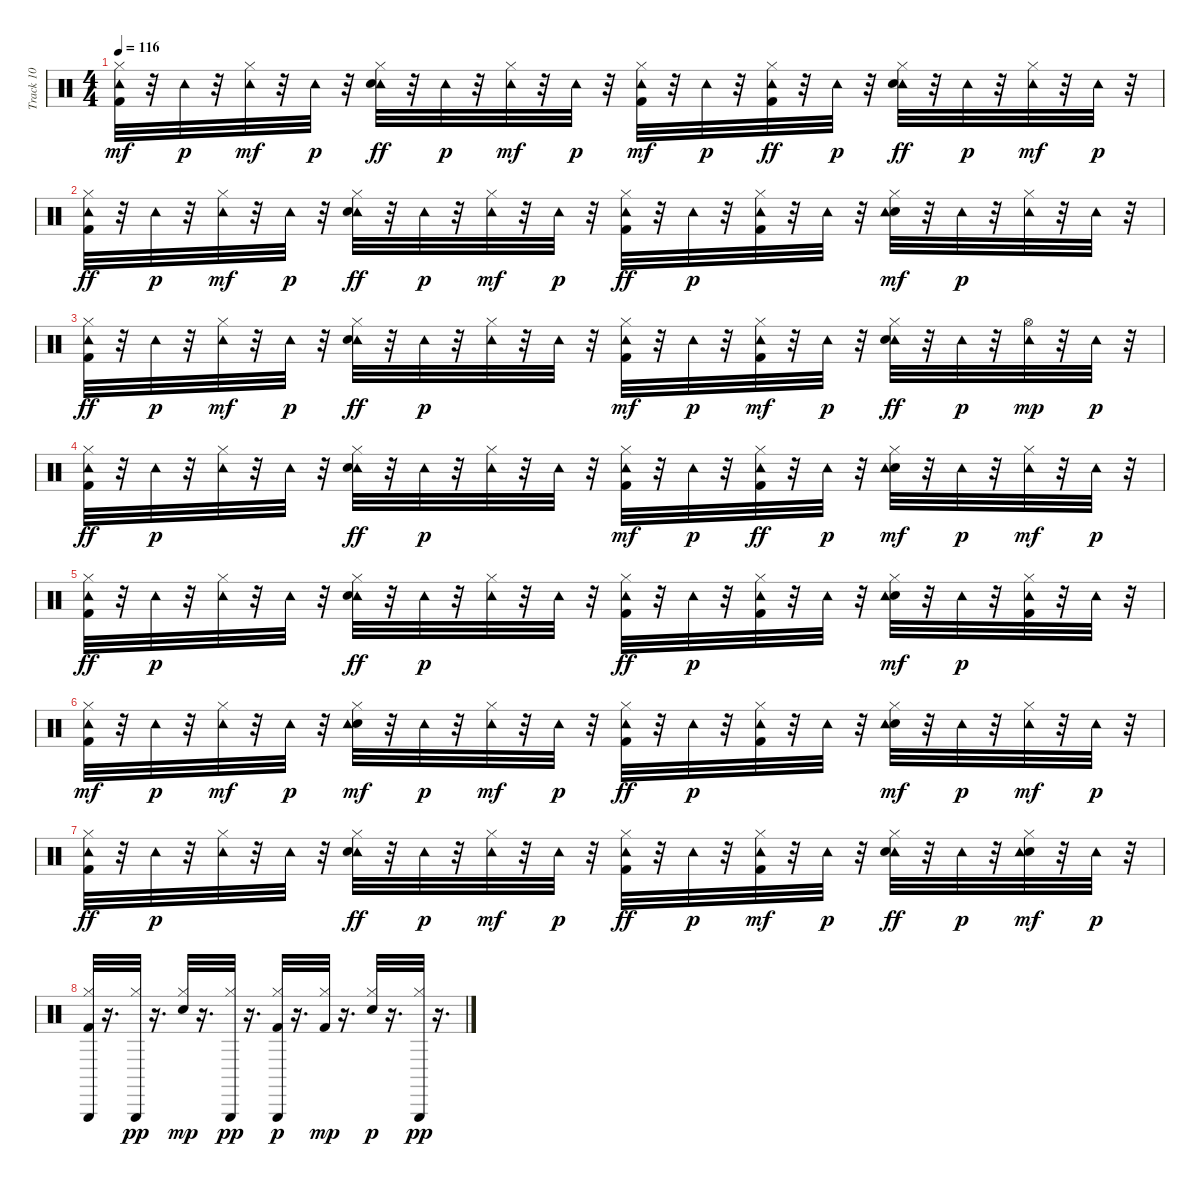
\track ("Track 10" "Track 10") {instrument percussion}
\staff {score}
\articulation defaults
\ts (4 4)
\tempo 116
\clef neutral
\ks c
("Hi-Hat (closed)" "Kick (hit) 2" "Tambourine (hit)").32{dy mf} r.32 "Tambourine (hit)".32{dy p} r.32 ("Hi-Hat (closed)" "Tambourine (hit)").32{dy mf} r.32 "Tambourine (hit)".32{dy p} r.32 ("Hi-Hat (closed)" "Tambourine (hit)" "Snare (hit) 2").32{dy ff} r.32 "Tambourine (hit)".32{dy p} r.32 ("Hi-Hat (closed)" "Tambourine (hit)").32{dy mf} r.32 "Tambourine (hit)".32{dy p} r.32 ("Hi-Hat (closed)" "Kick (hit) 2" "Tambourine (hit)").32{dy mf} r.32 "Tambourine (hit)".32{dy p} r.32 ("Tambourine (hit)" "Hi-Hat (closed)" "Kick (hit) 2").32{dy ff} r.32 "Tambourine (hit)".32{dy p} r.32 ("Tambourine (hit)" "Snare (hit) 2" "Hi-Hat (closed)").32{dy ff} r.32 "Tambourine (hit)".32{dy p} r.32 ("Hi-Hat (closed)" "Tambourine (hit)").32{dy mf} r.32 "Tambourine (hit)".32{dy p} r.32 |
("Tambourine (hit)" "Hi-Hat (closed)" "Kick (hit) 2").32{dy ff} r.32 "Tambourine (hit)".32{dy p} r.32 ("Hi-Hat (closed)" "Tambourine (hit)").32{dy mf} r.32 "Tambourine (hit)".32{dy p} r.32 ("Tambourine (hit)" "Snare (hit) 2" "Hi-Hat (closed)").32{dy ff} r.32 "Tambourine (hit)".32{dy p} r.32 ("Hi-Hat (closed)" "Tambourine (hit)").32{dy mf} r.32 "Tambourine (hit)".32{dy p} r.32 ("Tambourine (hit)" "Kick (hit) 2" "Hi-Hat (closed)").32{dy ff} r.32 "Tambourine (hit)".32{dy p} r.32 ("Tambourine (hit)" "Kick (hit) 2" "Hi-Hat (closed)").32 r.32 "Tambourine (hit)".32 r.32 ("Snare (hit) 2" "Hi-Hat (closed)" "Tambourine (hit)").32{dy mf} r.32 "Tambourine (hit)".32{dy p} r.32 ("Tambourine (hit)" "Hi-Hat (closed)").32 r.32 "Tambourine (hit)".32 r.32 |
("Tambourine (hit)" "Kick (hit) 2" "Hi-Hat (closed)").32{dy ff} r.32 "Tambourine (hit)".32{dy p} r.32 ("Hi-Hat (closed)" "Tambourine (hit)").32{dy mf} r.32 "Tambourine (hit)".32{dy p} r.32 ("Tambourine (hit)" "Snare (hit) 2" "Hi-Hat (closed)").32{dy ff} r.32 "Tambourine (hit)".32{dy p} r.32 ("Tambourine (hit)" "Hi-Hat (closed)").32 r.32 "Tambourine (hit)".32 r.32 ("Hi-Hat (closed)" "Kick (hit) 2" "Tambourine (hit)").32{dy mf} r.32 "Tambourine (hit)".32{dy p} r.32 ("Hi-Hat (closed)" "Kick (hit) 2" "Tambourine (hit)").32{dy mf} r.32 "Tambourine (hit)".32{dy p} r.32 ("Tambourine (hit)" "Snare (hit) 2" "Hi-Hat (closed)").32{dy ff} r.32 "Tambourine (hit)".32{dy p} r.32 ("Tambourine (hit)" "Hi-Hat (open)").32{dy mp} r.32 "Tambourine (hit)".32{dy p} r.32 |
("Tambourine (hit)" "Kick (hit) 2" "Hi-Hat (closed)").32{dy ff} r.32 "Tambourine (hit)".32{dy p} r.32 ("Tambourine (hit)" "Hi-Hat (closed)").32 r.32 "Tambourine (hit)".32 r.32 ("Hi-Hat (closed)" "Tambourine (hit)" "Snare (hit) 2").32{dy ff} r.32 "Tambourine (hit)".32{dy p} r.32 ("Tambourine (hit)" "Hi-Hat (closed)").32 r.32 "Tambourine (hit)".32 r.32 ("Kick (hit) 2" "Hi-Hat (closed)" "Tambourine (hit)").32{dy mf} r.32 "Tambourine (hit)".32{dy p} r.32 ("Hi-Hat (closed)" "Tambourine (hit)" "Kick (hit) 2").32{dy ff} r.32 "Tambourine (hit)".32{dy p} r.32 ("Hi-Hat (closed)" "Snare (hit) 2" "Tambourine (hit)").32{dy mf} r.32 "Tambourine (hit)".32{dy p} r.32 ("Hi-Hat (closed)" "Tambourine (hit)").32{dy mf} r.32 "Tambourine (hit)".32{dy p} r.32 |
("Hi-Hat (closed)" "Tambourine (hit)" "Kick (hit) 2").32{dy ff} r.32 "Tambourine (hit)".32{dy p} r.32 ("Tambourine (hit)" "Hi-Hat (closed)").32 r.32 "Tambourine (hit)".32 r.32 ("Hi-Hat (closed)" "Tambourine (hit)" "Snare (hit) 2").32{dy ff} r.32 "Tambourine (hit)".32{dy p} r.32 ("Tambourine (hit)" "Hi-Hat (closed)").32 r.32 "Tambourine (hit)".32 r.32 ("Tambourine (hit)" "Kick (hit) 2" "Hi-Hat (closed)").32{dy ff} r.32 "Tambourine (hit)".32{dy p} r.32 ("Tambourine (hit)" "Kick (hit) 2" "Hi-Hat (closed)").32 r.32 "Tambourine (hit)".32 r.32 ("Snare (hit) 2" "Tambourine (hit)" "Hi-Hat (closed)").32{dy mf} r.32 "Tambourine (hit)".32{dy p} r.32 ("Tambourine (hit)" "Kick (hit) 2" "Hi-Hat (closed)").32 r.32 "Tambourine (hit)".32 r.32 |
("Hi-Hat (closed)" "Kick (hit) 2" "Tambourine (hit)").32{dy mf} r.32 "Tambourine (hit)".32{dy p} r.32 ("Hi-Hat (closed)" "Tambourine (hit)").32{dy mf} r.32 "Tambourine (hit)".32{dy p} r.32 ("Snare (hit) 2" "Tambourine (hit)" "Hi-Hat (closed)").32{dy mf} r.32 "Tambourine (hit)".32{dy p} r.32 ("Hi-Hat (closed)" "Tambourine (hit)").32{dy mf} r.32 "Tambourine (hit)".32{dy p} r.32 ("Tambourine (hit)" "Hi-Hat (closed)" "Kick (hit) 2").32{dy ff} r.32 "Tambourine (hit)".32{dy p} r.32 ("Kick (hit) 2" "Tambourine (hit)" "Hi-Hat (closed)").32 r.32 "Tambourine (hit)".32 r.32 ("Snare (hit) 2" "Tambourine (hit)" "Hi-Hat (closed)").32{dy mf} r.32 "Tambourine (hit)".32{dy p} r.32 ("Hi-Hat (closed)" "Tambourine (hit)").32{dy mf} r.32 "Tambourine (hit)".32{dy p} r.32 |
("Hi-Hat (closed)" "Tambourine (hit)" "Kick (hit) 2").32{dy ff} r.32 "Tambourine (hit)".32{dy p} r.32 ("Tambourine (hit)" "Hi-Hat (closed)").32 r.32 "Tambourine (hit)".32 r.32 ("Hi-Hat (closed)" "Tambourine (hit)" "Snare (hit) 2").32{dy ff} r.32 "Tambourine (hit)".32{dy p} r.32 ("Hi-Hat (closed)" "Tambourine (hit)").32{dy mf} r.32 "Tambourine (hit)".32{dy p} r.32 ("Tambourine (hit)" "Kick (hit) 2" "Hi-Hat (closed)").32{dy ff} r.32 "Tambourine (hit)".32{dy p} r.32 ("Hi-Hat (closed)" "Kick (hit) 2" "Tambourine (hit)").32{dy mf} r.32 "Tambourine (hit)".32{dy p} r.32 ("Tambourine (hit)" "Hi-Hat (closed)" "Snare (hit) 2").32{dy ff} r.32 "Tambourine (hit)".32{dy p} r.32 ("Snare (hit) 2" "Hi-Hat (closed)" "Tambourine (hit)").32{dy mf} r.32 "Tambourine (hit)".32{dy p} r.32 |
("Kick (hit) 2" "Triangle (hit)" "Hi-Hat (closed)").32 r.16{d} ("Hi-Hat (closed)" "Triangle (hit)").32{dy pp} r.16{d} ("Hi-Hat (closed)" "Snare (hit) 2").32{dy mp} r.16{d} ("Triangle (hit)" "Hi-Hat (closed)").32{dy pp} r.16{d} ("Triangle (hit)" "Kick (hit) 2" "Hi-Hat (closed)").32{dy p} r.16{d} ("Hi-Hat (closed)" "Kick (hit) 2").32{dy mp} r.16{d} ("Snare (hit) 2" "Hi-Hat (closed)").32{dy p} r.16{d} ("Hi-Hat (closed)" "Triangle (hit)").32{dy pp} r.16{d}
